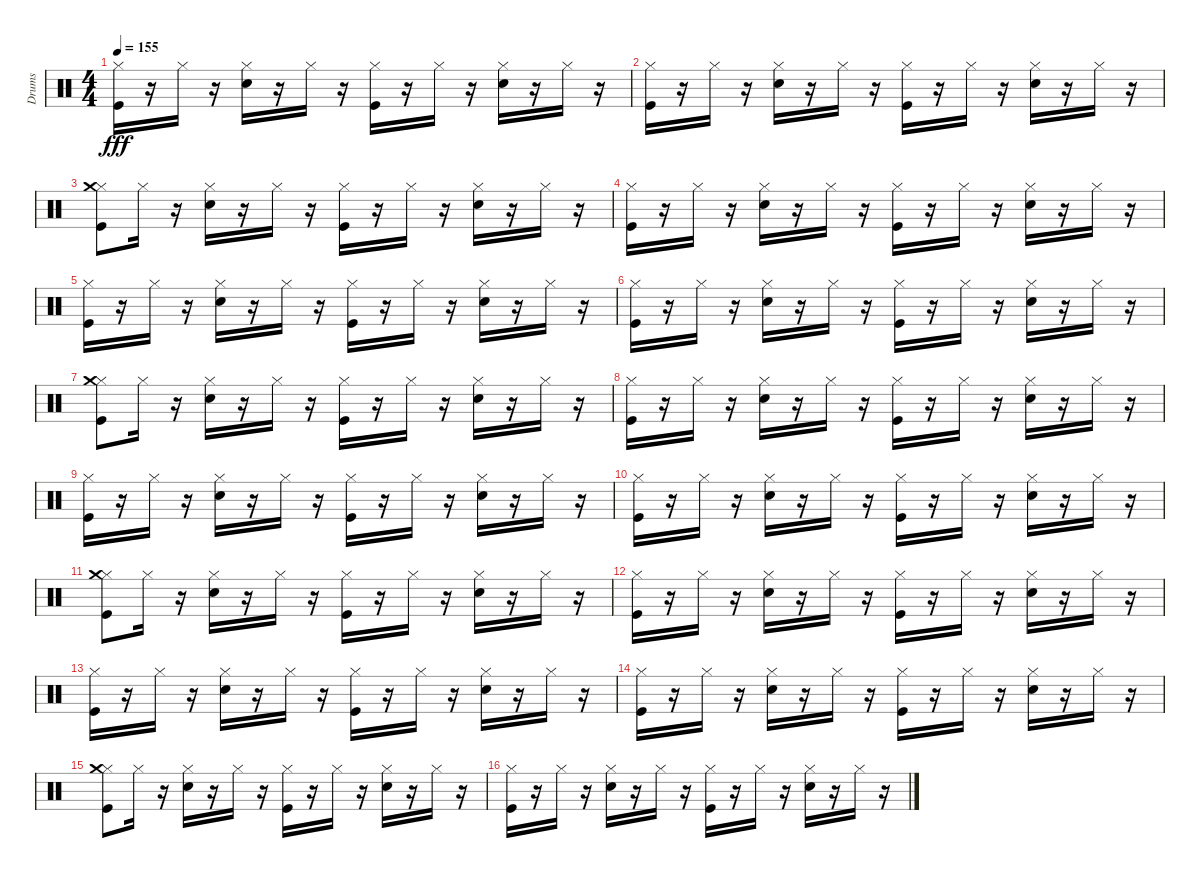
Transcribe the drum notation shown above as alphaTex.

\track ("Drums" "Drums") {instrument percussion}
\staff {score}
\articulation defaults
\ts (4 4)
\tempo 155
\clef neutral
\ks c
("Kick (hit)" "Hi-Hat (closed)").16{dy fff} r.16 "Hi-Hat (closed)".16 r.16 ("Snare (hit) 2" "Hi-Hat (closed)").16 r.16 "Hi-Hat (closed)".16 r.16 ("Kick (hit)" "Hi-Hat (closed)").16 r.16 "Hi-Hat (closed)".16 r.16 ("Snare (hit) 2" "Hi-Hat (closed)").16 r.16 "Hi-Hat (closed)".16 r.16 |
("Hi-Hat (closed)" "Kick (hit)").16 r.16 "Hi-Hat (closed)".16 r.16 ("Hi-Hat (closed)" "Snare (hit) 2").16 r.16 "Hi-Hat (closed)".16 r.16 ("Hi-Hat (closed)" "Kick (hit)").16 r.16 "Hi-Hat (closed)".16 r.16 ("Hi-Hat (closed)" "Snare (hit) 2").16 r.16 "Hi-Hat (closed)".16 r.16 |
("Kick (hit)" "Hi-Hat (closed)" "Crash medium (hit)").8 "Hi-Hat (closed)".16 r.16 ("Snare (hit) 2" "Hi-Hat (closed)").16 r.16 "Hi-Hat (closed)".16 r.16 ("Kick (hit)" "Hi-Hat (closed)").16 r.16 "Hi-Hat (closed)".16 r.16 ("Snare (hit) 2" "Hi-Hat (closed)").16 r.16 "Hi-Hat (closed)".16 r.16 |
("Hi-Hat (closed)" "Kick (hit)").16 r.16 "Hi-Hat (closed)".16 r.16 ("Hi-Hat (closed)" "Snare (hit) 2").16 r.16 "Hi-Hat (closed)".16 r.16 ("Hi-Hat (closed)" "Kick (hit)").16 r.16 "Hi-Hat (closed)".16 r.16 ("Hi-Hat (closed)" "Snare (hit) 2").16 r.16 "Hi-Hat (closed)".16 r.16 |
("Kick (hit)" "Hi-Hat (closed)").16 r.16 "Hi-Hat (closed)".16 r.16 ("Snare (hit) 2" "Hi-Hat (closed)").16 r.16 "Hi-Hat (closed)".16 r.16 ("Kick (hit)" "Hi-Hat (closed)").16 r.16 "Hi-Hat (closed)".16 r.16 ("Snare (hit) 2" "Hi-Hat (closed)").16 r.16 "Hi-Hat (closed)".16 r.16 |
("Hi-Hat (closed)" "Kick (hit)").16 r.16 "Hi-Hat (closed)".16 r.16 ("Hi-Hat (closed)" "Snare (hit) 2").16 r.16 "Hi-Hat (closed)".16 r.16 ("Hi-Hat (closed)" "Kick (hit)").16 r.16 "Hi-Hat (closed)".16 r.16 ("Hi-Hat (closed)" "Snare (hit) 2").16 r.16 "Hi-Hat (closed)".16 r.16 |
("Kick (hit)" "Hi-Hat (closed)" "Crash medium (hit)").8 "Hi-Hat (closed)".16 r.16 ("Snare (hit) 2" "Hi-Hat (closed)").16 r.16 "Hi-Hat (closed)".16 r.16 ("Kick (hit)" "Hi-Hat (closed)").16 r.16 "Hi-Hat (closed)".16 r.16 ("Snare (hit) 2" "Hi-Hat (closed)").16 r.16 "Hi-Hat (closed)".16 r.16 |
("Hi-Hat (closed)" "Kick (hit)").16 r.16 "Hi-Hat (closed)".16 r.16 ("Hi-Hat (closed)" "Snare (hit) 2").16 r.16 "Hi-Hat (closed)".16 r.16 ("Hi-Hat (closed)" "Kick (hit)").16 r.16 "Hi-Hat (closed)".16 r.16 ("Hi-Hat (closed)" "Snare (hit) 2").16 r.16 "Hi-Hat (closed)".16 r.16 |
("Kick (hit)" "Hi-Hat (closed)").16 r.16 "Hi-Hat (closed)".16 r.16 ("Snare (hit) 2" "Hi-Hat (closed)").16 r.16 "Hi-Hat (closed)".16 r.16 ("Kick (hit)" "Hi-Hat (closed)").16 r.16 "Hi-Hat (closed)".16 r.16 ("Snare (hit) 2" "Hi-Hat (closed)").16 r.16 "Hi-Hat (closed)".16 r.16 |
("Hi-Hat (closed)" "Kick (hit)").16 r.16 "Hi-Hat (closed)".16 r.16 ("Hi-Hat (closed)" "Snare (hit) 2").16 r.16 "Hi-Hat (closed)".16 r.16 ("Hi-Hat (closed)" "Kick (hit)").16 r.16 "Hi-Hat (closed)".16 r.16 ("Hi-Hat (closed)" "Snare (hit) 2").16 r.16 "Hi-Hat (closed)".16 r.16 |
("Kick (hit)" "Hi-Hat (closed)" "Crash medium (hit)").8 "Hi-Hat (closed)".16 r.16 ("Snare (hit) 2" "Hi-Hat (closed)").16 r.16 "Hi-Hat (closed)".16 r.16 ("Kick (hit)" "Hi-Hat (closed)").16 r.16 "Hi-Hat (closed)".16 r.16 ("Snare (hit) 2" "Hi-Hat (closed)").16 r.16 "Hi-Hat (closed)".16 r.16 |
("Hi-Hat (closed)" "Kick (hit)").16 r.16 "Hi-Hat (closed)".16 r.16 ("Hi-Hat (closed)" "Snare (hit) 2").16 r.16 "Hi-Hat (closed)".16 r.16 ("Hi-Hat (closed)" "Kick (hit)").16 r.16 "Hi-Hat (closed)".16 r.16 ("Hi-Hat (closed)" "Snare (hit) 2").16 r.16 "Hi-Hat (closed)".16 r.16 |
("Kick (hit)" "Hi-Hat (closed)").16 r.16 "Hi-Hat (closed)".16 r.16 ("Snare (hit) 2" "Hi-Hat (closed)").16 r.16 "Hi-Hat (closed)".16 r.16 ("Kick (hit)" "Hi-Hat (closed)").16 r.16 "Hi-Hat (closed)".16 r.16 ("Snare (hit) 2" "Hi-Hat (closed)").16 r.16 "Hi-Hat (closed)".16 r.16 |
("Hi-Hat (closed)" "Kick (hit)").16 r.16 "Hi-Hat (closed)".16 r.16 ("Hi-Hat (closed)" "Snare (hit) 2").16 r.16 "Hi-Hat (closed)".16 r.16 ("Hi-Hat (closed)" "Kick (hit)").16 r.16 "Hi-Hat (closed)".16 r.16 ("Hi-Hat (closed)" "Snare (hit) 2").16 r.16 "Hi-Hat (closed)".16 r.16 |
("Kick (hit)" "Hi-Hat (closed)" "Crash medium (hit)").8 "Hi-Hat (closed)".16 r.16 ("Snare (hit) 2" "Hi-Hat (closed)").16 r.16 "Hi-Hat (closed)".16 r.16 ("Kick (hit)" "Hi-Hat (closed)").16 r.16 "Hi-Hat (closed)".16 r.16 ("Snare (hit) 2" "Hi-Hat (closed)").16 r.16 "Hi-Hat (closed)".16 r.16 |
("Hi-Hat (closed)" "Kick (hit)").16 r.16 "Hi-Hat (closed)".16 r.16 ("Hi-Hat (closed)" "Snare (hit) 2").16 r.16 "Hi-Hat (closed)".16 r.16 ("Hi-Hat (closed)" "Kick (hit)").16 r.16 "Hi-Hat (closed)".16 r.16 ("Hi-Hat (closed)" "Snare (hit) 2").16 r.16 "Hi-Hat (closed)".16 r.16
